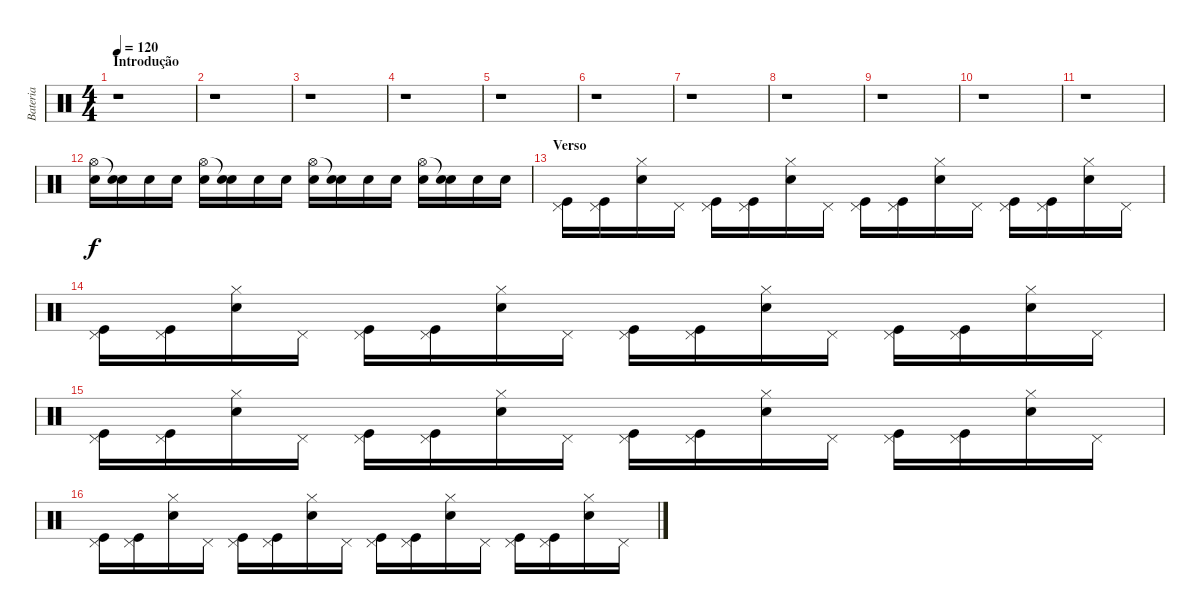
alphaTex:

\track ("Bateria" "Bateria") {instrument percussion}
\staff {score}
\articulation defaults
\ts (4 4)
\section ("" "Introdução")
\tempo 120
\clef neutral
\ks c
r.1{dy f} |
r.1 |
r.1 |
r.1 |
r.1 |
r.1 |
r.1 |
r.1 |
r.1 |
r.1 |
r.1 |
("Electric Snare (hit)" "Hi-Hat (open)").16 ("Electric Snare (hit)" "Snare (hit)"{t}).16 "Electric Snare (hit)".16 "Electric Snare (hit)".16 ("Electric Snare (hit)" "Hi-Hat (open)").16 ("Electric Snare (hit)" "Snare (hit)"{t}).16 "Electric Snare (hit)".16 "Electric Snare (hit)".16 ("Electric Snare (hit)" "Hi-Hat (open)").16 ("Electric Snare (hit)" "Snare (hit)"{t}).16 "Electric Snare (hit)".16 "Electric Snare (hit)".16 ("Electric Snare (hit)" "Hi-Hat (open)").16 ("Electric Snare (hit)" "Snare (hit)"{t}).16 "Electric Snare (hit)".16 "Electric Snare (hit)".16 |
\section ("" "Verso")
("Pedal Hi-Hat (hit)" "Kick (hit)").16 ("Pedal Hi-Hat (hit)" "Kick (hit)").16 ("Hi-Hat (closed)" "Electric Snare (hit)").16 "Pedal Hi-Hat (hit)".16 ("Pedal Hi-Hat (hit)" "Kick (hit)").16 ("Pedal Hi-Hat (hit)" "Kick (hit)").16 ("Hi-Hat (closed)" "Electric Snare (hit)").16 "Pedal Hi-Hat (hit)".16 ("Pedal Hi-Hat (hit)" "Kick (hit)").16 ("Pedal Hi-Hat (hit)" "Kick (hit)").16 ("Hi-Hat (closed)" "Electric Snare (hit)").16 "Pedal Hi-Hat (hit)".16 ("Pedal Hi-Hat (hit)" "Kick (hit)").16 ("Pedal Hi-Hat (hit)" "Kick (hit)").16 ("Hi-Hat (closed)" "Electric Snare (hit)").16 "Pedal Hi-Hat (hit)".16 |
("Pedal Hi-Hat (hit)" "Kick (hit)").16 ("Pedal Hi-Hat (hit)" "Kick (hit)").16 ("Hi-Hat (closed)" "Electric Snare (hit)").16 "Pedal Hi-Hat (hit)".16 ("Pedal Hi-Hat (hit)" "Kick (hit)").16 ("Pedal Hi-Hat (hit)" "Kick (hit)").16 ("Hi-Hat (closed)" "Electric Snare (hit)").16 "Pedal Hi-Hat (hit)".16 ("Pedal Hi-Hat (hit)" "Kick (hit)").16 ("Pedal Hi-Hat (hit)" "Kick (hit)").16 ("Hi-Hat (closed)" "Electric Snare (hit)").16 "Pedal Hi-Hat (hit)".16 ("Pedal Hi-Hat (hit)" "Kick (hit)").16 ("Pedal Hi-Hat (hit)" "Kick (hit)").16 ("Hi-Hat (closed)" "Electric Snare (hit)").16 "Pedal Hi-Hat (hit)".16 |
("Pedal Hi-Hat (hit)" "Kick (hit)").16 ("Pedal Hi-Hat (hit)" "Kick (hit)").16 ("Hi-Hat (closed)" "Electric Snare (hit)").16 "Pedal Hi-Hat (hit)".16 ("Pedal Hi-Hat (hit)" "Kick (hit)").16 ("Pedal Hi-Hat (hit)" "Kick (hit)").16 ("Hi-Hat (closed)" "Electric Snare (hit)").16 "Pedal Hi-Hat (hit)".16 ("Pedal Hi-Hat (hit)" "Kick (hit)").16 ("Pedal Hi-Hat (hit)" "Kick (hit)").16 ("Hi-Hat (closed)" "Electric Snare (hit)").16 "Pedal Hi-Hat (hit)".16 ("Pedal Hi-Hat (hit)" "Kick (hit)").16 ("Pedal Hi-Hat (hit)" "Kick (hit)").16 ("Hi-Hat (closed)" "Electric Snare (hit)").16 "Pedal Hi-Hat (hit)".16 |
("Pedal Hi-Hat (hit)" "Kick (hit)").16 ("Pedal Hi-Hat (hit)" "Kick (hit)").16 ("Hi-Hat (closed)" "Electric Snare (hit)").16 "Pedal Hi-Hat (hit)".16 ("Pedal Hi-Hat (hit)" "Kick (hit)").16 ("Pedal Hi-Hat (hit)" "Kick (hit)").16 ("Hi-Hat (closed)" "Electric Snare (hit)").16 "Pedal Hi-Hat (hit)".16 ("Pedal Hi-Hat (hit)" "Kick (hit)").16 ("Pedal Hi-Hat (hit)" "Kick (hit)").16 ("Hi-Hat (closed)" "Electric Snare (hit)").16 "Pedal Hi-Hat (hit)".16 ("Pedal Hi-Hat (hit)" "Kick (hit)").16 ("Pedal Hi-Hat (hit)" "Kick (hit)").16 ("Hi-Hat (closed)" "Electric Snare (hit)").16 "Pedal Hi-Hat (hit)".16
